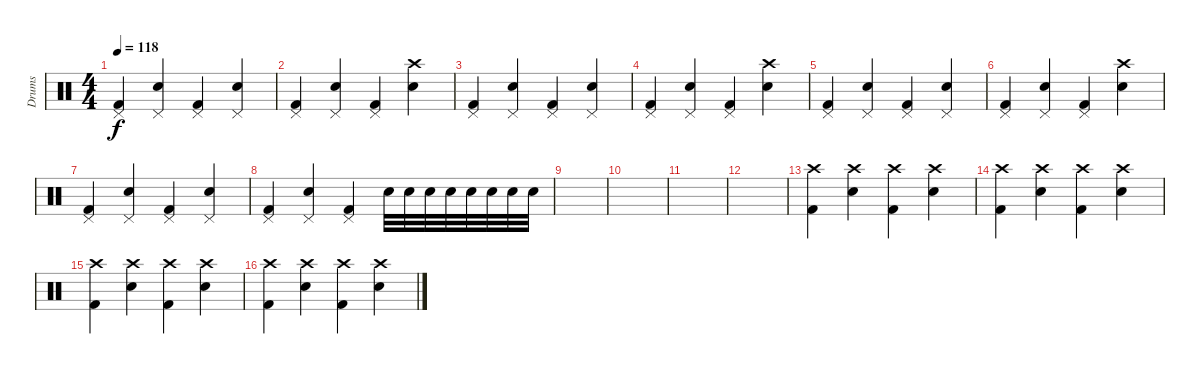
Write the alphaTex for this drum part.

\track ("Drums" "Drums") {instrument percussion}
\staff {score}
\articulation defaults
\ts (4 4)
\tempo 118
\clef neutral
\ks c
("Pedal Hi-Hat (hit)" "Kick (hit) 2").4{dy f} ("Pedal Hi-Hat (hit)" "Snare (hit) 2").4 ("Pedal Hi-Hat (hit)" "Kick (hit) 2").4 ("Pedal Hi-Hat (hit)" "Snare (hit) 2").4 |
("Pedal Hi-Hat (hit)" "Kick (hit) 2").4 ("Pedal Hi-Hat (hit)" "Snare (hit) 2").4 ("Pedal Hi-Hat (hit)" "Kick (hit) 2").4 ("Crash high (hit)" "Snare (hit) 2").4 |
("Pedal Hi-Hat (hit)" "Kick (hit) 2").4 ("Pedal Hi-Hat (hit)" "Snare (hit) 2").4 ("Pedal Hi-Hat (hit)" "Kick (hit) 2").4 ("Pedal Hi-Hat (hit)" "Snare (hit) 2").4 |
("Pedal Hi-Hat (hit)" "Kick (hit) 2").4 ("Pedal Hi-Hat (hit)" "Snare (hit) 2").4 ("Pedal Hi-Hat (hit)" "Kick (hit) 2").4 ("Crash high (hit)" "Snare (hit) 2").4 |
("Pedal Hi-Hat (hit)" "Kick (hit) 2").4 ("Pedal Hi-Hat (hit)" "Snare (hit) 2").4 ("Pedal Hi-Hat (hit)" "Kick (hit) 2").4 ("Pedal Hi-Hat (hit)" "Snare (hit) 2").4 |
("Pedal Hi-Hat (hit)" "Kick (hit) 2").4 ("Pedal Hi-Hat (hit)" "Snare (hit) 2").4 ("Pedal Hi-Hat (hit)" "Kick (hit) 2").4 ("Crash high (hit)" "Snare (hit) 2").4 |
("Pedal Hi-Hat (hit)" "Kick (hit) 2").4 ("Pedal Hi-Hat (hit)" "Snare (hit) 2").4 ("Pedal Hi-Hat (hit)" "Kick (hit) 2").4 ("Pedal Hi-Hat (hit)" "Snare (hit) 2").4 |
("Pedal Hi-Hat (hit)" "Kick (hit) 2").4 ("Pedal Hi-Hat (hit)" "Snare (hit) 2").4 ("Pedal Hi-Hat (hit)" "Kick (hit) 2").4 "Snare (hit) 2".32 "Snare (hit) 2".32 "Snare (hit) 2".32 "Snare (hit) 2".32 "Snare (hit) 2".32 "Snare (hit) 2".32 "Snare (hit) 2".32 "Snare (hit) 2".32 |
|
|
|
|
("Crash high (hit)" "Kick (hit) 2").4 ("Crash high (hit)" "Snare (hit) 2").4 ("Crash high (hit)" "Kick (hit) 2").4 ("Crash high (hit)" "Snare (hit) 2").4 |
("Crash high (hit)" "Kick (hit) 2").4 ("Crash high (hit)" "Snare (hit) 2").4 ("Crash high (hit)" "Kick (hit) 2").4 ("Crash high (hit)" "Snare (hit) 2").4 |
("Crash high (hit)" "Kick (hit) 2").4 ("Crash high (hit)" "Snare (hit) 2").4 ("Crash high (hit)" "Kick (hit) 2").4 ("Crash high (hit)" "Snare (hit) 2").4 |
("Crash high (hit)" "Kick (hit) 2").4 ("Crash high (hit)" "Snare (hit) 2").4 ("Crash high (hit)" "Kick (hit) 2").4 ("Crash high (hit)" "Snare (hit) 2").4
